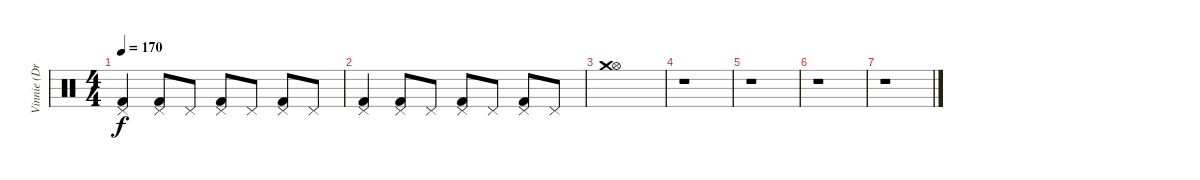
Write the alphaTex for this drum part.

\track ("Vinnie (Drums)" "Vinnie (Dr") {instrument percussion}
\staff {score}
\articulation defaults
\ts (4 4)
\tempo 170
\clef neutral
\ks c
("Pedal Hi-Hat (hit)" "Kick (hit) 2").4{dy f} ("Pedal Hi-Hat (hit)" "Kick (hit) 2").8 "Pedal Hi-Hat (hit)".8 ("Pedal Hi-Hat (hit)" "Kick (hit) 2").8 "Pedal Hi-Hat (hit)".8 ("Pedal Hi-Hat (hit)" "Kick (hit) 2").8 "Pedal Hi-Hat (hit)".8 |
("Pedal Hi-Hat (hit)" "Kick (hit) 2").4 ("Pedal Hi-Hat (hit)" "Kick (hit) 2").8 "Pedal Hi-Hat (hit)".8 ("Pedal Hi-Hat (hit)" "Kick (hit) 2").8 "Pedal Hi-Hat (hit)".8 ("Pedal Hi-Hat (hit)" "Kick (hit) 2").8 "Pedal Hi-Hat (hit)".8 |
("Hi-Hat (open)" "Crash medium (hit)").1 |
r.1 |
r.1 |
r.1 |
r.1
